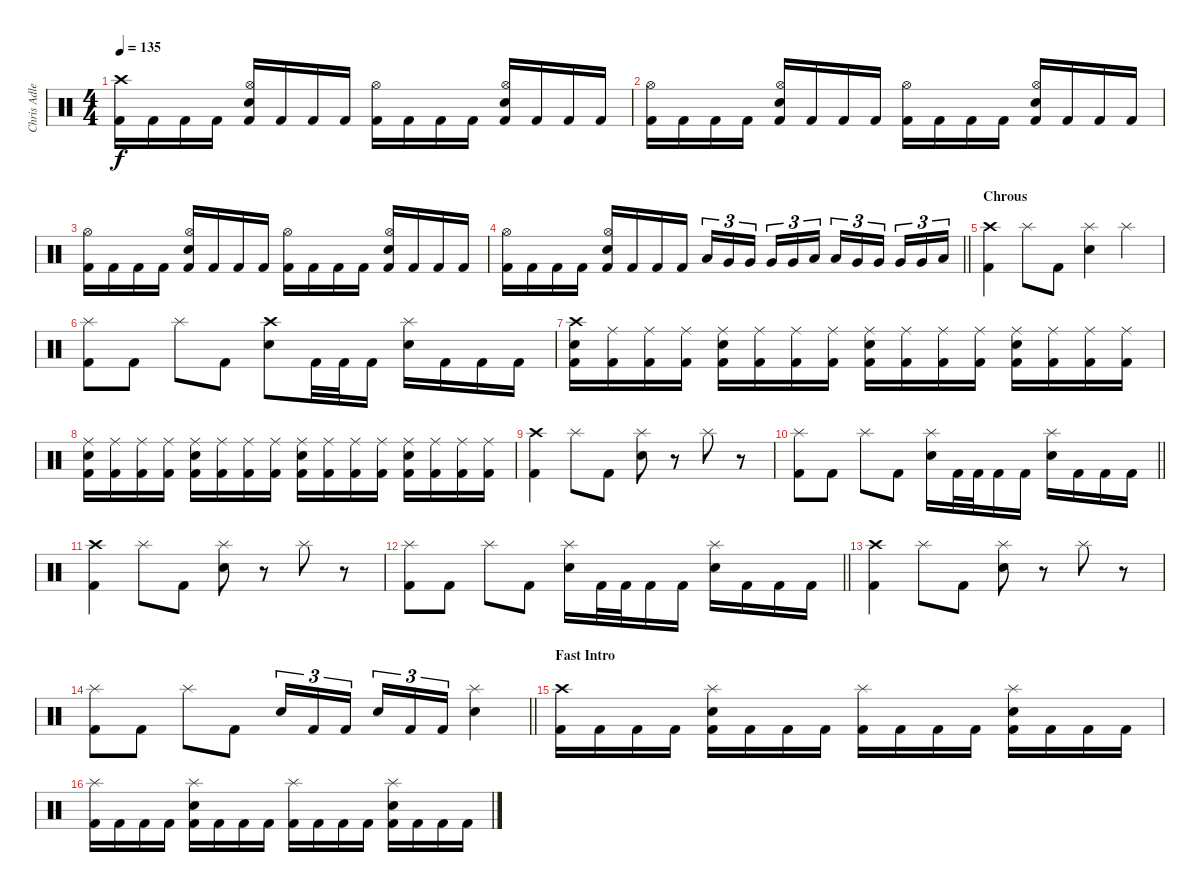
\track ("Chris Adler" "Chris Adle") {instrument percussion}
\staff {score}
\articulation defaults
\ts (4 4)
\tempo 135
\clef neutral
\ks c
("Crash high (hit)" "Kick (hit) 2").16{dy f} "Kick (hit) 2".16 "Kick (hit) 2".16 "Kick (hit) 2".16 ("Hi-Hat (open)" "Electric Snare (hit)" "Kick (hit) 2").16 "Kick (hit) 2".16 "Kick (hit) 2".16 "Kick (hit) 2".16 ("Hi-Hat (open)" "Kick (hit) 2").16 "Kick (hit) 2".16 "Kick (hit) 2".16 "Kick (hit) 2".16 ("Hi-Hat (open)" "Electric Snare (hit)" "Kick (hit) 2").16 "Kick (hit) 2".16 "Kick (hit) 2".16 "Kick (hit) 2".16 |
("Hi-Hat (open)" "Kick (hit) 2").16 "Kick (hit) 2".16 "Kick (hit) 2".16 "Kick (hit) 2".16 ("Hi-Hat (open)" "Electric Snare (hit)" "Kick (hit) 2").16 "Kick (hit) 2".16 "Kick (hit) 2".16 "Kick (hit) 2".16 ("Hi-Hat (open)" "Kick (hit) 2").16 "Kick (hit) 2".16 "Kick (hit) 2".16 "Kick (hit) 2".16 ("Hi-Hat (open)" "Electric Snare (hit)" "Kick (hit) 2").16 "Kick (hit) 2".16 "Kick (hit) 2".16 "Kick (hit) 2".16 |
("Hi-Hat (open)" "Kick (hit) 2").16 "Kick (hit) 2".16 "Kick (hit) 2".16 "Kick (hit) 2".16 ("Hi-Hat (open)" "Electric Snare (hit)" "Kick (hit) 2").16 "Kick (hit) 2".16 "Kick (hit) 2".16 "Kick (hit) 2".16 ("Hi-Hat (open)" "Kick (hit) 2").16 "Kick (hit) 2".16 "Kick (hit) 2".16 "Kick (hit) 2".16 ("Hi-Hat (open)" "Electric Snare (hit)" "Kick (hit) 2").16 "Kick (hit) 2".16 "Kick (hit) 2".16 "Kick (hit) 2".16 |
\barLineRight lightlight
("Hi-Hat (open)" "Kick (hit) 2").16 "Kick (hit) 2".16 "Kick (hit) 2".16 "Kick (hit) 2".16 ("Hi-Hat (open)" "Electric Snare (hit)" "Kick (hit) 2").16 "Kick (hit) 2".16 "Kick (hit) 2".16 "Kick (hit) 2".16 "Low Tom (hit)".16{tu (3 2)} "Very Low Tom (hit)".16{tu (3 2)} "Very Low Tom (hit)".16{tu (3 2) beam splitsecondary} "Very Low Tom (hit)".16{tu (3 2)} "Very Low Tom (hit)".16{tu (3 2)} "Low Floor Tom (hit)".16{tu (3 2)} "Low Tom (hit)".16{tu (3 2)} "Very Low Tom (hit)".16{tu (3 2)} "Very Low Tom (hit)".16{tu (3 2) beam splitsecondary} "Very Low Tom (hit)".16{tu (3 2)} "Very Low Tom (hit)".16{tu (3 2)} "Low Floor Tom (hit)".16{tu (3 2)} |
\section ("" "Chrous")
("Crash high (hit)" "Kick (hit) 2").4 "Splash (hit)".8 "Kick (hit) 2".8 ("Splash (hit)" "Electric Snare (hit)").4 "Splash (hit)".4 |
("Splash (hit)" "Kick (hit) 2").8 "Kick (hit) 2".8 "Splash (hit)".8 "Kick (hit) 2".8 ("Crash high (hit)" "Electric Snare (hit)").8 "Kick (hit) 2".32 "Kick (hit) 2".32 "Kick (hit) 2".16 ("Splash (hit)" "Electric Snare (hit)").16 "Kick (hit) 2".16 "Kick (hit) 2".16 "Kick (hit) 2".16 |
("Crash high (hit)" "Electric Snare (hit)" "Kick (hit) 2").16 ("Ride (middle)" "Kick (hit) 2").16 ("Ride (middle)" "Kick (hit) 2").16 ("Ride (middle)" "Kick (hit) 2").16 ("Ride (middle)" "Electric Snare (hit)" "Kick (hit) 2").16 ("Ride (middle)" "Kick (hit) 2").16 ("Ride (middle)" "Kick (hit) 2").16 ("Ride (middle)" "Kick (hit) 2").16 ("Ride (middle)" "Electric Snare (hit)" "Kick (hit) 2").16 ("Ride (middle)" "Kick (hit) 2").16 ("Ride (middle)" "Kick (hit) 2").16 ("Ride (middle)" "Kick (hit) 2").16 ("Ride (middle)" "Electric Snare (hit)" "Kick (hit) 2").16 ("Ride (middle)" "Kick (hit) 2").16 ("Ride (middle)" "Kick (hit) 2").16 ("Ride (middle)" "Kick (hit) 2").16 |
("Ride (middle)" "Electric Snare (hit)" "Kick (hit) 2").16 ("Ride (middle)" "Kick (hit) 2").16 ("Ride (middle)" "Kick (hit) 2").16 ("Ride (middle)" "Kick (hit) 2").16 ("Ride (middle)" "Electric Snare (hit)" "Kick (hit) 2").16 ("Ride (middle)" "Kick (hit) 2").16 ("Ride (middle)" "Kick (hit) 2").16 ("Ride (middle)" "Kick (hit) 2").16 ("Ride (middle)" "Electric Snare (hit)" "Kick (hit) 2").16 ("Ride (middle)" "Kick (hit) 2").16 ("Ride (middle)" "Kick (hit) 2").16 ("Ride (middle)" "Kick (hit) 2").16 ("Ride (middle)" "Electric Snare (hit)" "Kick (hit) 2").16 ("Ride (middle)" "Kick (hit) 2").16 ("Ride (middle)" "Kick (hit) 2").16 ("Ride (middle)" "Kick (hit) 2").16 |
("Crash high (hit)" "Kick (hit) 2").4 "Splash (hit)".8 "Kick (hit) 2".8 ("Splash (hit)" "Electric Snare (hit)").8 r.8 "Splash (hit)".8 r.8 |
\barLineRight lightlight
("Splash (hit)" "Kick (hit) 2").8 "Kick (hit) 2".8 "Splash (hit)".8 "Kick (hit) 2".8 ("Splash (hit)" "Electric Snare (hit)").16 "Kick (hit) 2".32 "Kick (hit) 2".32 "Kick (hit) 2".16 "Kick (hit) 2".16 ("Splash (hit)" "Electric Snare (hit)").16 "Kick (hit) 2".16 "Kick (hit) 2".16 "Kick (hit) 2".16 |
("Crash high (hit)" "Kick (hit) 2").4 "Splash (hit)".8 "Kick (hit) 2".8 ("Splash (hit)" "Electric Snare (hit)").8 r.8 "Splash (hit)".8 r.8 |
\barLineRight lightlight
("Splash (hit)" "Kick (hit) 2").8 "Kick (hit) 2".8 "Splash (hit)".8 "Kick (hit) 2".8 ("Splash (hit)" "Electric Snare (hit)").16 "Kick (hit) 2".32 "Kick (hit) 2".32 "Kick (hit) 2".16 "Kick (hit) 2".16 ("Splash (hit)" "Electric Snare (hit)").16 "Kick (hit) 2".16 "Kick (hit) 2".16 "Kick (hit) 2".16 |
("Crash high (hit)" "Kick (hit) 2").4 "Splash (hit)".8 "Kick (hit) 2".8 ("Splash (hit)" "Electric Snare (hit)").8 r.8 "Splash (hit)".8 r.8 |
\barLineRight lightlight
("Splash (hit)" "Kick (hit) 2").8 "Kick (hit) 2".8 "Splash (hit)".8 "Kick (hit) 2".8 "Electric Snare (hit)".16{tu (3 2)} "Kick (hit) 2".16{tu (3 2)} "Kick (hit) 2".16{tu (3 2) beam splitsecondary} "Electric Snare (hit)".16{tu (3 2)} "Kick (hit) 2".16{tu (3 2)} "Kick (hit) 2".16{tu (3 2)} ("Splash (hit)" "Electric Snare (hit)").4 |
\section ("" "Fast Intro")
("Crash high (hit)" "Kick (hit) 2").16 "Kick (hit) 2".16 "Kick (hit) 2".16 "Kick (hit) 2".16 ("Splash (hit)" "Electric Snare (hit)" "Kick (hit) 2").16 "Kick (hit) 2".16 "Kick (hit) 2".16 "Kick (hit) 2".16 ("Splash (hit)" "Kick (hit) 2").16 "Kick (hit) 2".16 "Kick (hit) 2".16 "Kick (hit) 2".16 ("Splash (hit)" "Electric Snare (hit)" "Kick (hit) 2").16 "Kick (hit) 2".16 "Kick (hit) 2".16 "Kick (hit) 2".16 |
("Splash (hit)" "Kick (hit) 2").16 "Kick (hit) 2".16 "Kick (hit) 2".16 "Kick (hit) 2".16 ("Splash (hit)" "Electric Snare (hit)" "Kick (hit) 2").16 "Kick (hit) 2".16 "Kick (hit) 2".16 "Kick (hit) 2".16 ("Splash (hit)" "Kick (hit) 2").16 "Kick (hit) 2".16 "Kick (hit) 2".16 "Kick (hit) 2".16 ("Splash (hit)" "Electric Snare (hit)" "Kick (hit) 2").16 "Kick (hit) 2".16 "Kick (hit) 2".16 "Kick (hit) 2".16
